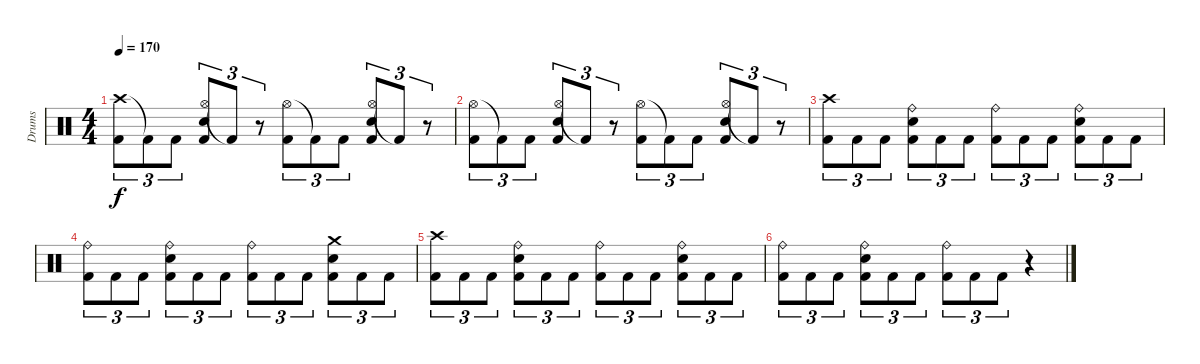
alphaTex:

\track ("Drums" "Drums") {instrument percussion}
\staff {score}
\articulation defaults
\ts (4 4)
\tempo 170
\clef neutral
\ks c
("Crash high (hit)" "Kick (hit) 2").8{tu (3 2) dy f} "Kick (hit) 2"{t}.8{tu (3 2)} "Kick (hit) 2".8{tu (3 2)} ("Hi-Hat (open)" "Snare (hit) 2" "Kick (hit) 2").8{tu (3 2)} "Kick (hit) 2"{t}.8{tu (3 2)} r.8{tu (3 2)} ("Hi-Hat (open)" "Kick (hit) 2").8{tu (3 2)} "Kick (hit) 2"{t}.8{tu (3 2)} "Kick (hit) 2".8{tu (3 2)} ("Hi-Hat (open)" "Snare (hit) 2" "Kick (hit) 2").8{tu (3 2)} "Kick (hit) 2"{t}.8{tu (3 2)} r.8{tu (3 2)} |
("Hi-Hat (open)" "Kick (hit) 2").8{tu (3 2)} "Kick (hit) 2"{t}.8{tu (3 2)} "Kick (hit) 2".8{tu (3 2)} ("Hi-Hat (open)" "Snare (hit) 2" "Kick (hit) 2").8{tu (3 2)} "Kick (hit) 2"{t}.8{tu (3 2)} r.8{tu (3 2)} ("Hi-Hat (open)" "Kick (hit) 2").8{tu (3 2)} "Kick (hit) 2"{t}.8{tu (3 2)} "Kick (hit) 2".8{tu (3 2)} ("Hi-Hat (open)" "Snare (hit) 2" "Kick (hit) 2").8{tu (3 2)} "Kick (hit) 2"{t}.8{tu (3 2)} r.8{tu (3 2)} |
("Crash high (hit)" "Kick (hit) 2").8{tu (3 2)} "Kick (hit) 2".8{tu (3 2)} "Kick (hit) 2".8{tu (3 2)} ("Ride (bell)" "Snare (hit) 2" "Kick (hit) 2").8{tu (3 2)} "Kick (hit) 2".8{tu (3 2)} "Kick (hit) 2".8{tu (3 2)} ("Ride (bell)" "Kick (hit) 2").8{tu (3 2)} "Kick (hit) 2".8{tu (3 2)} "Kick (hit) 2".8{tu (3 2)} ("Ride (bell)" "Snare (hit) 2" "Kick (hit) 2").8{tu (3 2)} "Kick (hit) 2".8{tu (3 2)} "Kick (hit) 2".8{tu (3 2)} |
("Ride (bell)" "Kick (hit) 2").8{tu (3 2)} "Kick (hit) 2".8{tu (3 2)} "Kick (hit) 2".8{tu (3 2)} ("Ride (bell)" "Snare (hit) 2" "Kick (hit) 2").8{tu (3 2)} "Kick (hit) 2".8{tu (3 2)} "Kick (hit) 2".8{tu (3 2)} ("Ride (bell)" "Kick (hit) 2").8{tu (3 2)} "Kick (hit) 2".8{tu (3 2)} "Kick (hit) 2".8{tu (3 2)} ("Crash medium (hit)" "Snare (hit) 2" "Kick (hit) 2").8{tu (3 2)} "Kick (hit) 2".8{tu (3 2)} "Kick (hit) 2".8{tu (3 2)} |
("Crash high (hit)" "Kick (hit) 2").8{tu (3 2)} "Kick (hit) 2".8{tu (3 2)} "Kick (hit) 2".8{tu (3 2)} ("Ride (bell)" "Snare (hit) 2" "Kick (hit) 2").8{tu (3 2)} "Kick (hit) 2".8{tu (3 2)} "Kick (hit) 2".8{tu (3 2)} ("Ride (bell)" "Kick (hit) 2").8{tu (3 2)} "Kick (hit) 2".8{tu (3 2)} "Kick (hit) 2".8{tu (3 2)} ("Ride (bell)" "Snare (hit) 2" "Kick (hit) 2").8{tu (3 2)} "Kick (hit) 2".8{tu (3 2)} "Kick (hit) 2".8{tu (3 2)} |
("Ride (bell)" "Kick (hit) 2").8{tu (3 2)} "Kick (hit) 2".8{tu (3 2)} "Kick (hit) 2".8{tu (3 2)} ("Ride (bell)" "Snare (hit) 2" "Kick (hit) 2").8{tu (3 2)} "Kick (hit) 2".8{tu (3 2)} "Kick (hit) 2".8{tu (3 2)} ("Ride (bell)" "Kick (hit) 2").8{tu (3 2)} "Kick (hit) 2".8{tu (3 2)} "Kick (hit) 2".8{tu (3 2)} r.4
